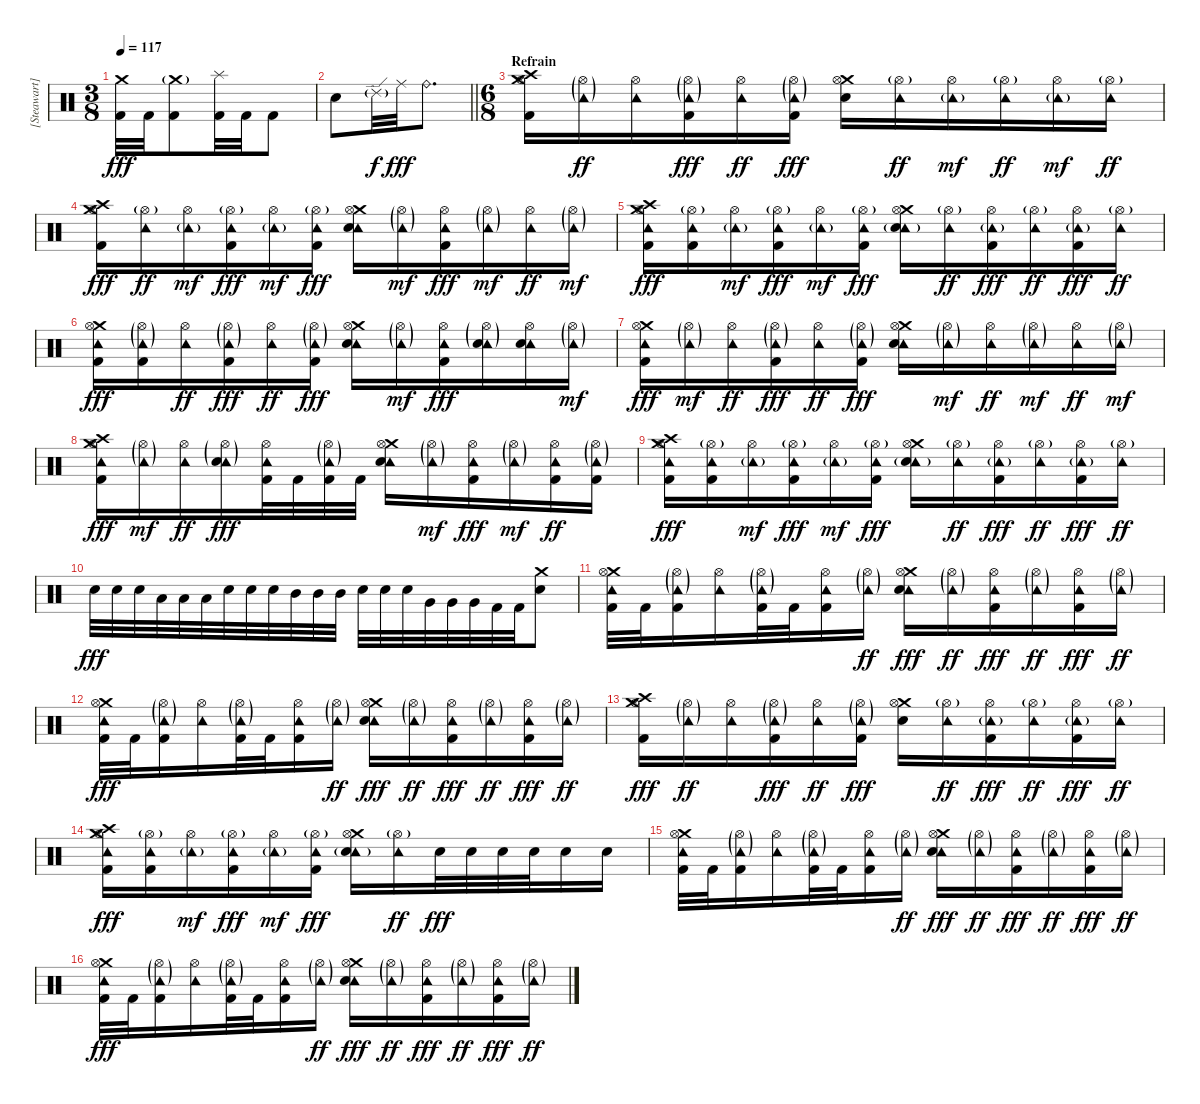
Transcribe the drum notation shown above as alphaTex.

\track ("[Steawart] Drums" "[Steawart]") {instrument percussion}
\staff {score}
\articulation defaults
\ts (3 8)
\tempo 117
\clef neutral
\ks c
("Crash medium (hit)" "Kick (hit) 2").32{dy fff} "Kick (hit) 2".32 ("Crash medium (hit)"{g} "Kick (hit) 2").8 ("Splash (hit)" "Kick (hit) 2").32 "Kick (hit) 2".32 "Kick (hit) 2".8 |
\barLineRight lightlight "Electric Snare (hit)".8 "Ride (edge) 2"{g}.32{dy f} "Ride (middle)".32{dy fff} "Ride (bell)".8{d}
|
\ts (6 8)
\section ("" "Refrain ")
("Crash medium (hit)" "Hi-Hat (open)" "Crash high (hit)" "Kick (hit) 2").16 ("Hi-Hat (open)"{g} "Tambourine (hit)"{g}).16{dy ff} ("Hi-Hat (open)" "Tambourine (hit)").16 ("Hi-Hat (open)"{g} "Tambourine (hit)"{g} "Kick (hit) 2").16{dy fff} ("Hi-Hat (open)" "Tambourine (hit)").16{dy ff} ("Hi-Hat (open)"{g} "Tambourine (hit)"{g} "Kick (hit) 2").16{dy fff} ("Crash medium (hit)" "Hi-Hat (open)" "Electric Snare (hit)").16 ("Hi-Hat (open)"{g} "Tambourine (hit)").16{dy ff} ("Hi-Hat (open)" "Tambourine (hit)"{g}).16{dy mf} ("Hi-Hat (open)"{g} "Tambourine (hit)").16{dy ff} ("Hi-Hat (open)" "Tambourine (hit)"{g}).16{dy mf} ("Hi-Hat (open)"{g} "Tambourine (hit)").16{dy ff} |
("Crash medium (hit)" "Hi-Hat (open)" "Crash high (hit)" "Kick (hit) 2").16{dy fff} ("Hi-Hat (open)"{g} "Tambourine (hit)").16{dy ff} ("Hi-Hat (open)" "Tambourine (hit)"{g}).16{dy mf} ("Hi-Hat (open)"{g} "Tambourine (hit)" "Kick (hit) 2").16{dy fff} ("Hi-Hat (open)" "Tambourine (hit)"{g}).16{dy mf} ("Hi-Hat (open)"{g} "Tambourine (hit)" "Kick (hit) 2").16{dy fff} ("Crash medium (hit)" "Hi-Hat (open)" "Tambourine (hit)" "Electric Snare (hit)").16 ("Hi-Hat (open)"{g} "Tambourine (hit)"{g}).16{dy mf} ("Hi-Hat (open)" "Tambourine (hit)" "Kick (hit) 2").16{dy fff} ("Hi-Hat (open)"{g} "Tambourine (hit)"{g}).16{dy mf} ("Hi-Hat (open)" "Tambourine (hit)").16{dy ff} ("Hi-Hat (open)"{g} "Tambourine (hit)"{g}).16{dy mf} |
("Crash medium (hit)" "Hi-Hat (open)" "Crash high (hit)" "Tambourine (hit)" "Kick (hit) 2").16{dy fff} ("Hi-Hat (open)"{g} "Tambourine (hit)" "Kick (hit) 2").16 ("Hi-Hat (open)" "Tambourine (hit)"{g}).16{dy mf} ("Hi-Hat (open)"{g} "Tambourine (hit)" "Kick (hit) 2").16{dy fff} ("Hi-Hat (open)" "Tambourine (hit)"{g}).16{dy mf} ("Hi-Hat (open)"{g} "Tambourine (hit)" "Kick (hit) 2").16{dy fff} ("Crash medium (hit)" "Hi-Hat (open)" "Tambourine (hit)"{g} "Electric Snare (hit)").16 ("Hi-Hat (open)"{g} "Tambourine (hit)").16{dy ff} ("Hi-Hat (open)" "Tambourine (hit)"{g} "Kick (hit) 2").16{dy fff} ("Hi-Hat (open)"{g} "Tambourine (hit)").16{dy ff} ("Hi-Hat (open)" "Tambourine (hit)"{g} "Kick (hit) 2").16{dy fff} ("Hi-Hat (open)"{g} "Tambourine (hit)").16{dy ff} |
("Crash medium (hit)" "Hi-Hat (open)" "Tambourine (hit)" "Kick (hit) 2").16{dy fff} ("Hi-Hat (open)"{g} "Tambourine (hit)"{g} "Kick (hit) 2").16 ("Hi-Hat (open)" "Tambourine (hit)").16{dy ff} ("Hi-Hat (open)"{g} "Tambourine (hit)"{g} "Kick (hit) 2").16{dy fff} ("Hi-Hat (open)" "Tambourine (hit)").16{dy ff} ("Hi-Hat (open)"{g} "Tambourine (hit)"{g} "Kick (hit) 2").16{dy fff} ("Crash medium (hit)" "Hi-Hat (open)" "Tambourine (hit)" "Electric Snare (hit)").16 ("Hi-Hat (open)"{g} "Tambourine (hit)"{g}).16{dy mf} ("Hi-Hat (open)" "Tambourine (hit)" "Kick (hit) 2").16{dy fff} ("Hi-Hat (open)"{g} "Tambourine (hit)"{g} "Electric Snare (hit)").16 ("Hi-Hat (open)" "Tambourine (hit)" "Electric Snare (hit)").16 ("Hi-Hat (open)"{g} "Tambourine (hit)"{g}).16{dy mf} |
("Crash medium (hit)" "Hi-Hat (open)" "Tambourine (hit)" "Kick (hit) 2").16{dy fff} ("Hi-Hat (open)"{g} "Tambourine (hit)"{g}).16{dy mf} ("Hi-Hat (open)" "Tambourine (hit)").16{dy ff} ("Hi-Hat (open)"{g} "Tambourine (hit)"{g} "Kick (hit) 2").16{dy fff} ("Hi-Hat (open)" "Tambourine (hit)").16{dy ff} ("Hi-Hat (open)"{g} "Tambourine (hit)"{g} "Kick (hit) 2").16{dy fff} ("Crash medium (hit)" "Hi-Hat (open)" "Tambourine (hit)" "Electric Snare (hit)").16 ("Hi-Hat (open)"{g} "Tambourine (hit)"{g}).16{dy mf} ("Hi-Hat (open)" "Tambourine (hit)").16{dy ff} ("Hi-Hat (open)"{g} "Tambourine (hit)"{g}).16{dy mf} ("Hi-Hat (open)" "Tambourine (hit)").16{dy ff} ("Hi-Hat (open)"{g} "Tambourine (hit)"{g}).16{dy mf} |
("Crash medium (hit)" "Hi-Hat (open)" "Crash high (hit)" "Tambourine (hit)" "Kick (hit) 2").16{dy fff} ("Hi-Hat (open)"{g} "Tambourine (hit)"{g}).16{dy mf} ("Hi-Hat (open)" "Tambourine (hit)").16{dy ff} ("Hi-Hat (open)"{g} "Tambourine (hit)"{g} "Electric Snare (hit)").16{dy fff} ("Hi-Hat (open)" "Tambourine (hit)" "Kick (hit) 2").32 "Kick (hit) 2".32 ("Hi-Hat (open)"{g} "Tambourine (hit)"{g} "Kick (hit) 2").32 "Kick (hit) 2".32 ("Crash medium (hit)" "Hi-Hat (open)" "Tambourine (hit)" "Electric Snare (hit)").16 ("Hi-Hat (open)"{g} "Tambourine (hit)"{g}).16{dy mf} ("Hi-Hat (open)" "Tambourine (hit)" "Kick (hit) 2").16{dy fff} ("Hi-Hat (open)"{g} "Tambourine (hit)"{g}).16{dy mf} ("Hi-Hat (open)" "Tambourine (hit)" "Kick (hit) 2").16{dy ff} ("Hi-Hat (open)"{g} "Tambourine (hit)"{g} "Kick (hit) 2").16 |
("Crash medium (hit)" "Hi-Hat (open)" "Crash high (hit)" "Tambourine (hit)" "Kick (hit) 2").16{dy fff} ("Hi-Hat (open)"{g} "Tambourine (hit)" "Kick (hit) 2").16 ("Hi-Hat (open)" "Tambourine (hit)"{g}).16{dy mf} ("Hi-Hat (open)"{g} "Tambourine (hit)" "Kick (hit) 2").16{dy fff} ("Hi-Hat (open)" "Tambourine (hit)"{g}).16{dy mf} ("Hi-Hat (open)"{g} "Tambourine (hit)" "Kick (hit) 2").16{dy fff} ("Crash medium (hit)" "Hi-Hat (open)" "Tambourine (hit)"{g} "Electric Snare (hit)").16 ("Hi-Hat (open)"{g} "Tambourine (hit)").16{dy ff} ("Hi-Hat (open)" "Tambourine (hit)"{g} "Kick (hit) 2").16{dy fff} ("Hi-Hat (open)"{g} "Tambourine (hit)").16{dy ff} ("Hi-Hat (open)" "Tambourine (hit)"{g} "Kick (hit) 2").16{dy fff} ("Hi-Hat (open)"{g} "Tambourine (hit)").16{dy ff} |
"Electric Snare (hit)".32{dy fff} "Electric Snare (hit)".32 "Electric Snare (hit)".32 "Low Tom (hit)".32 "Low Tom (hit)".32 "Low Tom (hit)".32 "Electric Snare (hit)".32 "Electric Snare (hit)".32 "Electric Snare (hit)".32 "Mid Tom (hit)".32 "Mid Tom (hit)".32 "Mid Tom (hit)".32 "Electric Snare (hit)".32 "Electric Snare (hit)".32 "Electric Snare (hit)".32 "Very Low Tom (hit)".32 "Very Low Tom (hit)".32 "Very Low Tom (hit)".32 "Kick (hit) 2".32 "Kick (hit) 2".32 ("Crash medium (hit)" "Electric Snare (hit)").8 |
("Crash medium (hit)" "Hi-Hat (open)" "Tambourine (hit)" "Kick (hit) 2").32 "Kick (hit) 2".32 ("Hi-Hat (open)"{g} "Tambourine (hit)"{g} "Kick (hit) 2").16 ("Hi-Hat (open)" "Tambourine (hit)").16 ("Hi-Hat (open)"{g} "Tambourine (hit)"{g} "Kick (hit) 2").32 "Kick (hit) 2".32 ("Hi-Hat (open)" "Tambourine (hit)" "Kick (hit) 2").16 ("Hi-Hat (open)"{g} "Tambourine (hit)"{g}).16{dy ff} ("Crash medium (hit)" "Hi-Hat (open)" "Tambourine (hit)" "Electric Snare (hit)").16{dy fff} ("Hi-Hat (open)"{g} "Tambourine (hit)"{g}).16{dy ff} ("Hi-Hat (open)" "Tambourine (hit)" "Kick (hit) 2").16{dy fff} ("Hi-Hat (open)"{g} "Tambourine (hit)"{g}).16{dy ff} ("Hi-Hat (open)" "Tambourine (hit)" "Kick (hit) 2").16{dy fff} ("Hi-Hat (open)"{g} "Tambourine (hit)"{g}).16{dy ff} |
("Crash medium (hit)" "Hi-Hat (open)" "Tambourine (hit)" "Kick (hit) 2").32{dy fff} "Kick (hit) 2".32 ("Hi-Hat (open)"{g} "Tambourine (hit)"{g} "Kick (hit) 2").16 ("Hi-Hat (open)" "Tambourine (hit)").16 ("Hi-Hat (open)"{g} "Tambourine (hit)"{g} "Kick (hit) 2").32 "Kick (hit) 2".32 ("Hi-Hat (open)" "Tambourine (hit)" "Kick (hit) 2").16 ("Hi-Hat (open)"{g} "Tambourine (hit)"{g}).16{dy ff} ("Crash medium (hit)" "Hi-Hat (open)" "Tambourine (hit)" "Electric Snare (hit)").16{dy fff} ("Hi-Hat (open)"{g} "Tambourine (hit)"{g}).16{dy ff} ("Hi-Hat (open)" "Tambourine (hit)" "Kick (hit) 2").16{dy fff} ("Hi-Hat (open)"{g} "Tambourine (hit)"{g}).16{dy ff} ("Hi-Hat (open)" "Tambourine (hit)" "Kick (hit) 2").16{dy fff} ("Hi-Hat (open)"{g} "Tambourine (hit)"{g}).16{dy ff} |
("Crash medium (hit)" "Hi-Hat (open)" "Crash high (hit)" "Kick (hit) 2").16{dy fff} ("Hi-Hat (open)"{g} "Tambourine (hit)"{g}).16{dy ff} ("Hi-Hat (open)" "Tambourine (hit)").16 ("Hi-Hat (open)"{g} "Tambourine (hit)"{g} "Kick (hit) 2").16{dy fff} ("Hi-Hat (open)" "Tambourine (hit)").16{dy ff} ("Hi-Hat (open)"{g} "Tambourine (hit)"{g} "Kick (hit) 2").16{dy fff} ("Crash medium (hit)" "Hi-Hat (open)" "Electric Snare (hit)").16 ("Hi-Hat (open)"{g} "Tambourine (hit)").16{dy ff} ("Hi-Hat (open)" "Tambourine (hit)"{g} "Kick (hit) 2").16{dy fff} ("Hi-Hat (open)"{g} "Tambourine (hit)").16{dy ff} ("Hi-Hat (open)" "Tambourine (hit)"{g} "Kick (hit) 2").16{dy fff} ("Hi-Hat (open)"{g} "Tambourine (hit)").16{dy ff} |
("Crash medium (hit)" "Hi-Hat (open)" "Crash high (hit)" "Tambourine (hit)" "Kick (hit) 2").16{dy fff} ("Hi-Hat (open)"{g} "Tambourine (hit)" "Kick (hit) 2").16 ("Hi-Hat (open)" "Tambourine (hit)"{g}).16{dy mf} ("Hi-Hat (open)"{g} "Tambourine (hit)" "Kick (hit) 2").16{dy fff} ("Hi-Hat (open)" "Tambourine (hit)"{g}).16{dy mf} ("Hi-Hat (open)"{g} "Tambourine (hit)" "Kick (hit) 2").16{dy fff} ("Crash medium (hit)" "Hi-Hat (open)" "Tambourine (hit)"{g} "Electric Snare (hit)").16 ("Hi-Hat (open)"{g} "Tambourine (hit)").16{dy ff} "Electric Snare (hit)".32{dy fff} "Electric Snare (hit)".32 "Electric Snare (hit)".32 "Electric Snare (hit)".32 "Electric Snare (hit)".16 "Electric Snare (hit)".16 |
("Crash medium (hit)" "Hi-Hat (open)" "Tambourine (hit)" "Kick (hit) 2").32 "Kick (hit) 2".32 ("Hi-Hat (open)"{g} "Tambourine (hit)"{g} "Kick (hit) 2").16 ("Hi-Hat (open)" "Tambourine (hit)").16 ("Hi-Hat (open)"{g} "Tambourine (hit)"{g} "Kick (hit) 2").32 "Kick (hit) 2".32 ("Hi-Hat (open)" "Tambourine (hit)" "Kick (hit) 2").16 ("Hi-Hat (open)"{g} "Tambourine (hit)"{g}).16{dy ff} ("Crash medium (hit)" "Hi-Hat (open)" "Tambourine (hit)" "Electric Snare (hit)").16{dy fff} ("Hi-Hat (open)"{g} "Tambourine (hit)"{g}).16{dy ff} ("Hi-Hat (open)" "Tambourine (hit)" "Kick (hit) 2").16{dy fff} ("Hi-Hat (open)"{g} "Tambourine (hit)"{g}).16{dy ff} ("Hi-Hat (open)" "Tambourine (hit)" "Kick (hit) 2").16{dy fff} ("Hi-Hat (open)"{g} "Tambourine (hit)"{g}).16{dy ff} |
("Crash medium (hit)" "Hi-Hat (open)" "Tambourine (hit)" "Kick (hit) 2").32{dy fff} "Kick (hit) 2".32 ("Hi-Hat (open)"{g} "Tambourine (hit)"{g} "Kick (hit) 2").16 ("Hi-Hat (open)" "Tambourine (hit)").16 ("Hi-Hat (open)"{g} "Tambourine (hit)"{g} "Kick (hit) 2").32 "Kick (hit) 2".32 ("Hi-Hat (open)" "Tambourine (hit)" "Kick (hit) 2").16 ("Hi-Hat (open)"{g} "Tambourine (hit)"{g}).16{dy ff} ("Crash medium (hit)" "Hi-Hat (open)" "Tambourine (hit)" "Electric Snare (hit)").16{dy fff} ("Hi-Hat (open)"{g} "Tambourine (hit)"{g}).16{dy ff} ("Hi-Hat (open)" "Tambourine (hit)" "Kick (hit) 2").16{dy fff} ("Hi-Hat (open)"{g} "Tambourine (hit)"{g}).16{dy ff} ("Hi-Hat (open)" "Tambourine (hit)" "Kick (hit) 2").16{dy fff} ("Hi-Hat (open)"{g} "Tambourine (hit)"{g}).16{dy ff}
